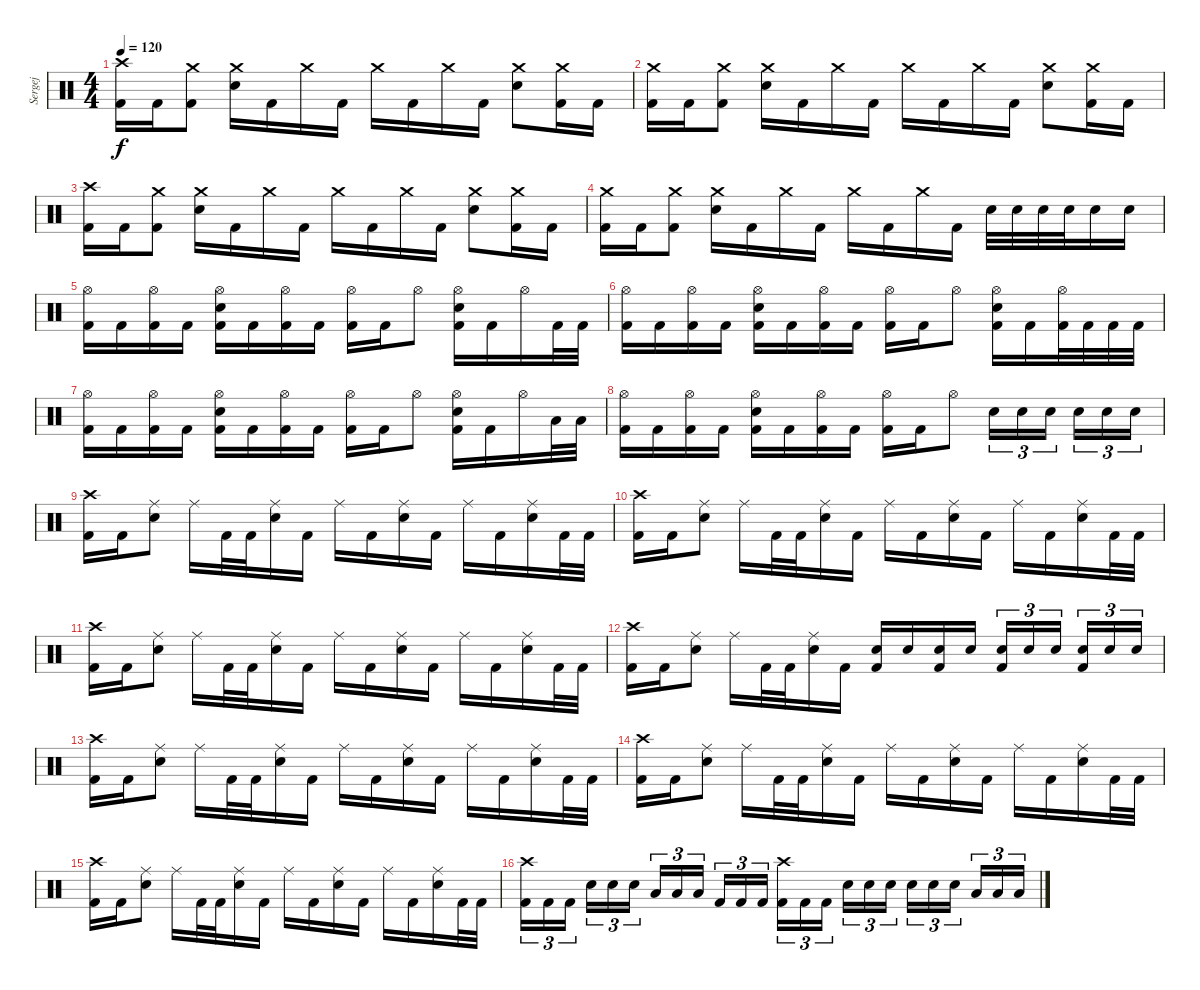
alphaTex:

\track ("Sergej" "Sergej") {instrument percussion}
\staff {score}
\articulation defaults
\ts (4 4)
\tempo 120
\clef neutral
\ks c
("Crash high (hit)" "Kick (hit) 2").16{dy f} "Kick (hit) 2".16 ("Crash medium (hit)" "Kick (hit) 2").8 ("Crash medium (hit)" "Snare (hit) 2").16 "Kick (hit) 2".16 "Crash medium (hit)".16 "Kick (hit) 2".16 "Crash medium (hit)".16 "Kick (hit) 2".16 "Crash medium (hit)".16 "Kick (hit) 2".16 ("Crash medium (hit)" "Snare (hit) 2").8 ("Crash medium (hit)" "Kick (hit) 2").16 "Kick (hit) 2".16 |
("Crash medium (hit)" "Kick (hit) 2").16 "Kick (hit) 2".16 ("Crash medium (hit)" "Kick (hit) 2").8 ("Crash medium (hit)" "Snare (hit) 2").16 "Kick (hit) 2".16 "Crash medium (hit)".16 "Kick (hit) 2".16 "Crash medium (hit)".16 "Kick (hit) 2".16 "Crash medium (hit)".16 "Kick (hit) 2".16 ("Crash medium (hit)" "Snare (hit) 2").8 ("Crash medium (hit)" "Kick (hit) 2").16 "Kick (hit) 2".16 |
("Crash high (hit)" "Kick (hit) 2").16 "Kick (hit) 2".16 ("Crash medium (hit)" "Kick (hit) 2").8 ("Crash medium (hit)" "Snare (hit) 2").16 "Kick (hit) 2".16 "Crash medium (hit)".16 "Kick (hit) 2".16 "Crash medium (hit)".16 "Kick (hit) 2".16 "Crash medium (hit)".16 "Kick (hit) 2".16 ("Crash medium (hit)" "Snare (hit) 2").8 ("Crash medium (hit)" "Kick (hit) 2").16 "Kick (hit) 2".16 |
("Crash medium (hit)" "Kick (hit) 2").16 "Kick (hit) 2".16 ("Crash medium (hit)" "Kick (hit) 2").8 ("Crash medium (hit)" "Snare (hit) 2").16 "Kick (hit) 2".16 "Crash medium (hit)".16 "Kick (hit) 2".16 "Crash medium (hit)".16 "Kick (hit) 2".16 "Crash medium (hit)".16 "Kick (hit) 2".16 "Snare (hit) 2".32 "Snare (hit) 2".32 "Snare (hit) 2".32 "Snare (hit) 2".32 "Snare (hit) 2".16 "Snare (hit) 2".16 |
("Hi-Hat (open)" "Kick (hit) 2").16 "Kick (hit) 2".16 ("Hi-Hat (open)" "Kick (hit) 2").16 "Kick (hit) 2".16 ("Hi-Hat (open)" "Snare (hit) 2" "Kick (hit) 2").16 "Kick (hit) 2".16 ("Hi-Hat (open)" "Kick (hit) 2").16 "Kick (hit) 2".16 ("Hi-Hat (open)" "Kick (hit) 2").16 "Kick (hit) 2".16 "Hi-Hat (open)".8 ("Hi-Hat (open)" "Snare (hit) 2" "Kick (hit) 2").16 "Kick (hit) 2".16 "Hi-Hat (open)".16 "Kick (hit) 2".32 "Kick (hit) 2".32 |
("Hi-Hat (open)" "Kick (hit) 2").16 "Kick (hit) 2".16 ("Hi-Hat (open)" "Kick (hit) 2").16 "Kick (hit) 2".16 ("Hi-Hat (open)" "Snare (hit) 2" "Kick (hit) 2").16 "Kick (hit) 2".16 ("Hi-Hat (open)" "Kick (hit) 2").16 "Kick (hit) 2".16 ("Hi-Hat (open)" "Kick (hit) 2").16 "Kick (hit) 2".16 "Hi-Hat (open)".8 ("Hi-Hat (open)" "Snare (hit) 2" "Kick (hit) 2").16 "Kick (hit) 2".16 ("Hi-Hat (open)" "Kick (hit) 2").32 "Kick (hit) 2".32 "Kick (hit) 2".32 "Kick (hit) 2".32 |
("Hi-Hat (open)" "Kick (hit) 2").16 "Kick (hit) 2".16 ("Hi-Hat (open)" "Kick (hit) 2").16 "Kick (hit) 2".16 ("Hi-Hat (open)" "Snare (hit) 2" "Kick (hit) 2").16 "Kick (hit) 2".16 ("Hi-Hat (open)" "Kick (hit) 2").16 "Kick (hit) 2".16 ("Hi-Hat (open)" "Kick (hit) 2").16 "Kick (hit) 2".16 "Hi-Hat (open)".8 ("Hi-Hat (open)" "Snare (hit) 2" "Kick (hit) 2").16 "Kick (hit) 2".16 "Hi-Hat (open)".16 "Low Tom (hit)".32 "Low Tom (hit)".32 |
("Hi-Hat (open)" "Kick (hit) 2").16 "Kick (hit) 2".16 ("Hi-Hat (open)" "Kick (hit) 2").16 "Kick (hit) 2".16 ("Hi-Hat (open)" "Snare (hit) 2" "Kick (hit) 2").16 "Kick (hit) 2".16 ("Hi-Hat (open)" "Kick (hit) 2").16 "Kick (hit) 2".16 ("Hi-Hat (open)" "Kick (hit) 2").16 "Kick (hit) 2".16 "Hi-Hat (open)".8 "Snare (hit) 2".16{tu (3 2)} "Snare (hit) 2".16{tu (3 2)} "Snare (hit) 2".16{tu (3 2)} "Snare (hit) 2".16{tu (3 2)} "Snare (hit) 2".16{tu (3 2)} "Snare (hit) 2".16{tu (3 2)} |
("Crash high (hit)" "Kick (hit) 2").16 "Kick (hit) 2".16 ("Ride (middle)" "Snare (hit) 2").8 "Ride (middle)".16 "Kick (hit) 2".32 "Kick (hit) 2".32 ("Ride (middle)" "Snare (hit) 2").16 "Kick (hit) 2".16 "Ride (middle)".16 "Kick (hit) 2".16 ("Ride (middle)" "Snare (hit) 2").16 "Kick (hit) 2".16 "Ride (middle)".16 "Kick (hit) 2".16 ("Ride (middle)" "Snare (hit) 2").16 "Kick (hit) 2".32 "Kick (hit) 2".32 |
("Crash high (hit)" "Kick (hit) 2").16 "Kick (hit) 2".16 ("Ride (middle)" "Snare (hit) 2").8 "Ride (middle)".16 "Kick (hit) 2".32 "Kick (hit) 2".32 ("Ride (middle)" "Snare (hit) 2").16 "Kick (hit) 2".16 "Ride (middle)".16 "Kick (hit) 2".16 ("Ride (middle)" "Snare (hit) 2").16 "Kick (hit) 2".16 "Ride (middle)".16 "Kick (hit) 2".16 ("Ride (middle)" "Snare (hit) 2").16 "Kick (hit) 2".32 "Kick (hit) 2".32 |
("Crash high (hit)" "Kick (hit) 2").16 "Kick (hit) 2".16 ("Ride (middle)" "Snare (hit) 2").8 "Ride (middle)".16 "Kick (hit) 2".32 "Kick (hit) 2".32 ("Ride (middle)" "Snare (hit) 2").16 "Kick (hit) 2".16 "Ride (middle)".16 "Kick (hit) 2".16 ("Ride (middle)" "Snare (hit) 2").16 "Kick (hit) 2".16 "Ride (middle)".16 "Kick (hit) 2".16 ("Ride (middle)" "Snare (hit) 2").16 "Kick (hit) 2".32 "Kick (hit) 2".32 |
("Crash high (hit)" "Kick (hit) 2").16 "Kick (hit) 2".16 ("Ride (middle)" "Snare (hit) 2").8 "Ride (middle)".16 "Kick (hit) 2".32 "Kick (hit) 2".32 ("Ride (middle)" "Snare (hit) 2").16 "Kick (hit) 2".16 ("Kick (hit) 2" "Snare (hit) 2").16 "Snare (hit) 2".16 ("Kick (hit) 2" "Snare (hit) 2").16 "Snare (hit) 2".16 ("Kick (hit) 2" "Snare (hit) 2").16{tu (3 2)} "Snare (hit) 2".16{tu (3 2)} "Snare (hit) 2".16{tu (3 2)} ("Kick (hit) 2" "Snare (hit) 2").16{tu (3 2)} "Snare (hit) 2".16{tu (3 2)} "Snare (hit) 2".16{tu (3 2)} |
("Crash high (hit)" "Kick (hit) 2").16 "Kick (hit) 2".16 ("Ride (middle)" "Snare (hit) 2").8 "Ride (middle)".16 "Kick (hit) 2".32 "Kick (hit) 2".32 ("Ride (middle)" "Snare (hit) 2").16 "Kick (hit) 2".16 "Ride (middle)".16 "Kick (hit) 2".16 ("Ride (middle)" "Snare (hit) 2").16 "Kick (hit) 2".16 "Ride (middle)".16 "Kick (hit) 2".16 ("Ride (middle)" "Snare (hit) 2").16 "Kick (hit) 2".32 "Kick (hit) 2".32 |
("Crash high (hit)" "Kick (hit) 2").16 "Kick (hit) 2".16 ("Ride (middle)" "Snare (hit) 2").8 "Ride (middle)".16 "Kick (hit) 2".32 "Kick (hit) 2".32 ("Ride (middle)" "Snare (hit) 2").16 "Kick (hit) 2".16 "Ride (middle)".16 "Kick (hit) 2".16 ("Ride (middle)" "Snare (hit) 2").16 "Kick (hit) 2".16 "Ride (middle)".16 "Kick (hit) 2".16 ("Ride (middle)" "Snare (hit) 2").16 "Kick (hit) 2".32 "Kick (hit) 2".32 |
("Crash high (hit)" "Kick (hit) 2").16 "Kick (hit) 2".16 ("Ride (middle)" "Snare (hit) 2").8 "Ride (middle)".16 "Kick (hit) 2".32 "Kick (hit) 2".32 ("Ride (middle)" "Snare (hit) 2").16 "Kick (hit) 2".16 "Ride (middle)".16 "Kick (hit) 2".16 ("Ride (middle)" "Snare (hit) 2").16 "Kick (hit) 2".16 "Ride (middle)".16 "Kick (hit) 2".16 ("Ride (middle)" "Snare (hit) 2").16 "Kick (hit) 2".32 "Kick (hit) 2".32 |
("Crash high (hit)" "Kick (hit) 2").16{tu (3 2)} "Kick (hit) 2".16{tu (3 2)} "Kick (hit) 2".16{tu (3 2)} "Snare (hit) 2".16{tu (3 2)} "Snare (hit) 2".16{tu (3 2)} "Snare (hit) 2".16{tu (3 2)} "Low Tom (hit)".16{tu (3 2)} "Low Tom (hit)".16{tu (3 2)} "Low Tom (hit)".16{tu (3 2)} "Kick (hit) 2".16{tu (3 2)} "Kick (hit) 2".16{tu (3 2)} "Kick (hit) 2".16{tu (3 2)} ("Crash high (hit)" "Kick (hit) 2").16{tu (3 2)} "Kick (hit) 2".16{tu (3 2)} "Kick (hit) 2".16{tu (3 2)} "Snare (hit) 2".16{tu (3 2)} "Snare (hit) 2".16{tu (3 2)} "Snare (hit) 2".16{tu (3 2)} "Snare (hit) 2".16{tu (3 2)} "Snare (hit) 2".16{tu (3 2)} "Snare (hit) 2".16{tu (3 2)} "Low Tom (hit)".16{tu (3 2)} "Low Tom (hit)".16{tu (3 2)} "Low Tom (hit)".16{tu (3 2)}
